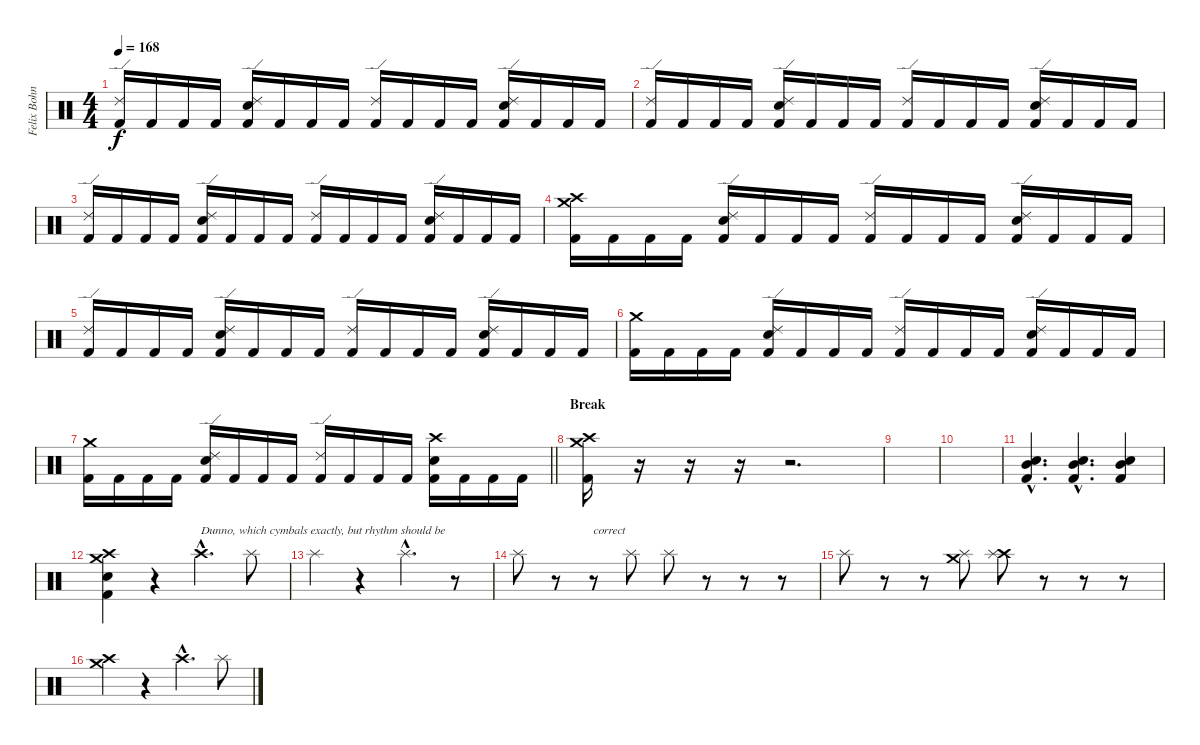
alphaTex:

\track ("Felix Bohnke" "Felix Bohn") {instrument percussion}
\staff {score}
\articulation defaults
\ts (4 4)
\tempo 168
\clef neutral
\ks c
("Ride (edge) 2" "Kick (hit) 2").16{dy f} "Kick (hit) 2".16 "Kick (hit) 2".16 "Kick (hit) 2".16 ("Ride (edge) 2" "Snare (hit) 2" "Kick (hit) 2").16 "Kick (hit) 2".16 "Kick (hit) 2".16 "Kick (hit) 2".16 ("Ride (edge) 2" "Kick (hit) 2").16 "Kick (hit) 2".16 "Kick (hit) 2".16 "Kick (hit) 2".16 ("Ride (edge) 2" "Snare (hit) 2" "Kick (hit) 2").16 "Kick (hit) 2".16 "Kick (hit) 2".16 "Kick (hit) 2".16 |
("Ride (edge) 2" "Kick (hit) 2").16 "Kick (hit) 2".16 "Kick (hit) 2".16 "Kick (hit) 2".16 ("Ride (edge) 2" "Snare (hit) 2" "Kick (hit) 2").16 "Kick (hit) 2".16 "Kick (hit) 2".16 "Kick (hit) 2".16 ("Ride (edge) 2" "Kick (hit) 2").16 "Kick (hit) 2".16 "Kick (hit) 2".16 "Kick (hit) 2".16 ("Ride (edge) 2" "Snare (hit) 2" "Kick (hit) 2").16 "Kick (hit) 2".16 "Kick (hit) 2".16 "Kick (hit) 2".16 |
("Ride (edge) 2" "Kick (hit) 2").16 "Kick (hit) 2".16 "Kick (hit) 2".16 "Kick (hit) 2".16 ("Ride (edge) 2" "Snare (hit) 2" "Kick (hit) 2").16 "Kick (hit) 2".16 "Kick (hit) 2".16 "Kick (hit) 2".16 ("Ride (edge) 2" "Kick (hit) 2").16 "Kick (hit) 2".16 "Kick (hit) 2".16 "Kick (hit) 2".16 ("Ride (edge) 2" "Snare (hit) 2" "Kick (hit) 2").16 "Kick (hit) 2".16 "Kick (hit) 2".16 "Kick (hit) 2".16 |
("Crash high (hit)" "Crash medium (hit)" "Kick (hit) 2").16 "Kick (hit) 2".16 "Kick (hit) 2".16 "Kick (hit) 2".16 ("Ride (edge) 2" "Snare (hit) 2" "Kick (hit) 2").16 "Kick (hit) 2".16 "Kick (hit) 2".16 "Kick (hit) 2".16 ("Ride (edge) 2" "Kick (hit) 2").16 "Kick (hit) 2".16 "Kick (hit) 2".16 "Kick (hit) 2".16 ("Ride (edge) 2" "Snare (hit) 2" "Kick (hit) 2").16 "Kick (hit) 2".16 "Kick (hit) 2".16 "Kick (hit) 2".16 |
("Ride (edge) 2" "Kick (hit) 2").16 "Kick (hit) 2".16 "Kick (hit) 2".16 "Kick (hit) 2".16 ("Ride (edge) 2" "Snare (hit) 2" "Kick (hit) 2").16 "Kick (hit) 2".16 "Kick (hit) 2".16 "Kick (hit) 2".16 ("Ride (edge) 2" "Kick (hit) 2").16 "Kick (hit) 2".16 "Kick (hit) 2".16 "Kick (hit) 2".16 ("Ride (edge) 2" "Snare (hit) 2" "Kick (hit) 2").16 "Kick (hit) 2".16 "Kick (hit) 2".16 "Kick (hit) 2".16 |
("Crash medium (hit)" "Kick (hit) 2").16 "Kick (hit) 2".16 "Kick (hit) 2".16 "Kick (hit) 2".16 ("Ride (edge) 2" "Snare (hit) 2" "Kick (hit) 2").16 "Kick (hit) 2".16 "Kick (hit) 2".16 "Kick (hit) 2".16 ("Ride (edge) 2" "Kick (hit) 2").16 "Kick (hit) 2".16 "Kick (hit) 2".16 "Kick (hit) 2".16 ("Ride (edge) 2" "Snare (hit) 2" "Kick (hit) 2").16 "Kick (hit) 2".16 "Kick (hit) 2".16 "Kick (hit) 2".16 |
\barLineRight lightlight
("Crash medium (hit)" "Kick (hit) 2").16 "Kick (hit) 2".16 "Kick (hit) 2".16 "Kick (hit) 2".16 ("Ride (edge) 2" "Snare (hit) 2" "Kick (hit) 2").16 "Kick (hit) 2".16 "Kick (hit) 2".16 "Kick (hit) 2".16 ("Ride (edge) 2" "Kick (hit) 2").16 "Kick (hit) 2".16 "Kick (hit) 2".16 "Kick (hit) 2".16 ("Crash high (hit)" "Snare (hit) 2" "Kick (hit) 2").16 "Kick (hit) 2".16 "Kick (hit) 2".16 "Kick (hit) 2".16 |
\section ("" "Break")
("Crash medium (hit)" "Crash high (hit)" "Kick (hit) 2").16 r.16 r.16 r.16 r.2{d} |
|
|
("Snare (hit) 2"{hac} "Mid Tom (hit)"{hac} "Kick (hit) 2"{hac}).4{d} ("Snare (hit) 2"{hac} "Mid Tom (hit)"{hac} "Kick (hit) 2"{hac}).4{d} ("Snare (hit) 2" "Mid Tom (hit)" "Kick (hit) 2").4 |
("Crash high (hit)" "Crash medium (hit)" "Snare (hit) 2" "Kick (hit) 2").4 r.4 "Crash high (hit)"{hac}.4{d txt "Dunno, which cymbals exactly, but rhythm should be"} "Splash (hit)".8 |
"Splash (hit)".4 r.4 "Splash (hit)"{hac}.4{d} r.8 |
"Splash (hit)".8 r.8 r.8{txt "correct"} "Splash (hit)".8 "Splash (hit)".8 r.8 r.8 r.8 |
"Splash (hit)".8 r.8 r.8 ("Crash medium (hit)" "Splash (hit)").8 ("Crash high (hit)" "Splash (hit)").8 r.8 r.8 r.8 |
("Crash high (hit)" "Crash medium (hit)").4 r.4 "Crash high (hit)"{hac}.4{d} "Splash (hit)".8
